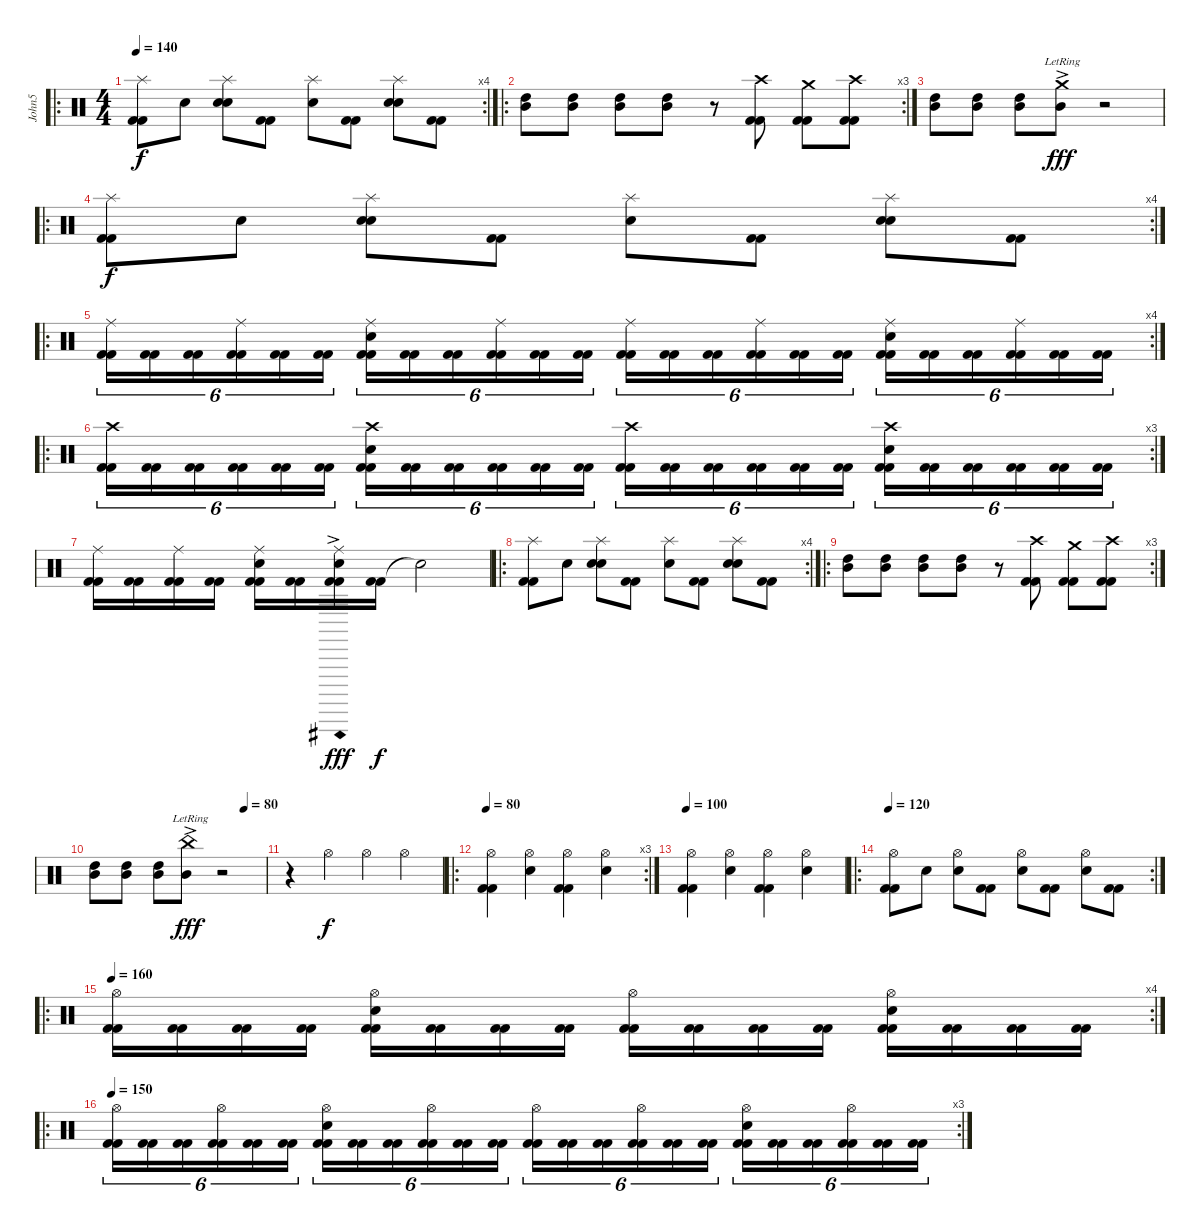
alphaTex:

\track ("John5" "John5") {instrument percussion}
\staff {score}
\articulation defaults
\ro
\rc 4
\ts (4 4)
\tempo 140
\clef neutral
\ks c
("Splash (hit)" "Kick (hit) 2" "Kick (hit) 2").8{dy f} "Snare (hit)".8 ("Splash (hit)" "Electric Snare (hit)" "Snare (hit)").8 ("Kick (hit) 2" "Kick (hit) 2").8 ("Splash (hit)" "Snare (hit)").8 ("Kick (hit) 2" "Kick (hit) 2").8 ("Splash (hit)" "Electric Snare (hit)" "Snare (hit)").8 ("Kick (hit) 2" "Kick (hit) 2").8 |
\ro
\rc 3
("High Tom (hit)" "Mid Tom (hit)").8 ("High Tom (hit)" "Mid Tom (hit)").8 ("High Tom (hit)" "Mid Tom (hit)").8 ("High Tom (hit)" "Mid Tom (hit)").8 r.8 ("Crash high (hit)" "Kick (hit) 2" "Kick (hit) 2").8 ("Crash medium (hit)" "Kick (hit) 2" "Kick (hit) 2").8 ("Crash high (hit)" "Kick (hit) 2" "Kick (hit) 2").8 |
("High Tom (hit)" "Mid Tom (hit)").8 ("High Tom (hit)" "Mid Tom (hit)").8 ("High Tom (hit)" "Mid Tom (hit)").8 ("Crash medium (hit)"{ac lr} "Mid Tom (hit)").8{dy fff} r.2 |
\ro
\rc 4
("Splash (hit)" "Kick (hit) 2" "Kick (hit) 2").8{dy f} "Snare (hit)".8 ("Splash (hit)" "Electric Snare (hit)" "Snare (hit)").8 ("Kick (hit) 2" "Kick (hit) 2").8 ("Splash (hit)" "Snare (hit)").8 ("Kick (hit) 2" "Kick (hit) 2").8 ("Splash (hit)" "Electric Snare (hit)" "Snare (hit)").8 ("Kick (hit) 2" "Kick (hit) 2").8 |
\ro
\rc 4
("Ride (middle)" "Kick (hit) 2" "Kick (hit) 2").16{tu (6 4)} ("Kick (hit) 2" "Kick (hit) 2").16{tu (6 4)} ("Kick (hit) 2" "Kick (hit) 2").16{tu (6 4)} ("Ride (middle)" "Kick (hit) 2" "Kick (hit) 2").16{tu (6 4)} ("Kick (hit) 2" "Kick (hit) 2").16{tu (6 4)} ("Kick (hit) 2" "Kick (hit) 2").16{tu (6 4)} ("Ride (middle)" "Electric Snare (hit)" "Kick (hit) 2" "Kick (hit) 2").16{tu (6 4)} ("Kick (hit) 2" "Kick (hit) 2").16{tu (6 4)} ("Kick (hit) 2" "Kick (hit) 2").16{tu (6 4)} ("Ride (middle)" "Kick (hit) 2" "Kick (hit) 2").16{tu (6 4)} ("Kick (hit) 2" "Kick (hit) 2").16{tu (6 4)} ("Kick (hit) 2" "Kick (hit) 2").16{tu (6 4)} ("Ride (middle)" "Kick (hit) 2" "Kick (hit) 2").16{tu (6 4)} ("Kick (hit) 2" "Kick (hit) 2").16{tu (6 4)} ("Kick (hit) 2" "Kick (hit) 2").16{tu (6 4)} ("Ride (middle)" "Kick (hit) 2" "Kick (hit) 2").16{tu (6 4)} ("Kick (hit) 2" "Kick (hit) 2").16{tu (6 4)} ("Kick (hit) 2" "Kick (hit) 2").16{tu (6 4)} ("Ride (middle)" "Electric Snare (hit)" "Kick (hit) 2" "Kick (hit) 2").16{tu (6 4)} ("Kick (hit) 2" "Kick (hit) 2").16{tu (6 4)} ("Kick (hit) 2" "Kick (hit) 2").16{tu (6 4)} ("Ride (middle)" "Kick (hit) 2" "Kick (hit) 2").16{tu (6 4)} ("Kick (hit) 2" "Kick (hit) 2").16{tu (6 4)} ("Kick (hit) 2" "Kick (hit) 2").16{tu (6 4)} |
\ro
\rc 3
("Crash high (hit)" "Kick (hit) 2" "Kick (hit) 2").16{tu (6 4)} ("Kick (hit) 2" "Kick (hit) 2").16{tu (6 4)} ("Kick (hit) 2" "Kick (hit) 2").16{tu (6 4)} ("Kick (hit) 2" "Kick (hit) 2").16{tu (6 4)} ("Kick (hit) 2" "Kick (hit) 2").16{tu (6 4)} ("Kick (hit) 2" "Kick (hit) 2").16{tu (6 4)} ("Crash high (hit)" "Electric Snare (hit)" "Kick (hit) 2" "Kick (hit) 2").16{tu (6 4)} ("Kick (hit) 2" "Kick (hit) 2").16{tu (6 4)} ("Kick (hit) 2" "Kick (hit) 2").16{tu (6 4)} ("Kick (hit) 2" "Kick (hit) 2").16{tu (6 4)} ("Kick (hit) 2" "Kick (hit) 2").16{tu (6 4)} ("Kick (hit) 2" "Kick (hit) 2").16{tu (6 4)} ("Crash high (hit)" "Kick (hit) 2" "Kick (hit) 2").16{tu (6 4)} ("Kick (hit) 2" "Kick (hit) 2").16{tu (6 4)} ("Kick (hit) 2" "Kick (hit) 2").16{tu (6 4)} ("Kick (hit) 2" "Kick (hit) 2").16{tu (6 4)} ("Kick (hit) 2" "Kick (hit) 2").16{tu (6 4)} ("Kick (hit) 2" "Kick (hit) 2").16{tu (6 4)} ("Crash high (hit)" "Electric Snare (hit)" "Kick (hit) 2" "Kick (hit) 2").16{tu (6 4)} ("Kick (hit) 2" "Kick (hit) 2").16{tu (6 4)} ("Kick (hit) 2" "Kick (hit) 2").16{tu (6 4)} ("Kick (hit) 2" "Kick (hit) 2").16{tu (6 4)} ("Kick (hit) 2" "Kick (hit) 2").16{tu (6 4)} ("Kick (hit) 2" "Kick (hit) 2").16{tu (6 4)} |
("Ride (middle)" "Kick (hit) 2" "Kick (hit) 2").16 ("Kick (hit) 2" "Kick (hit) 2").16 ("Ride (middle)" "Kick (hit) 2" "Kick (hit) 2").16 ("Kick (hit) 2" "Kick (hit) 2").16 ("Ride (middle)" "Electric Snare (hit)" "Kick (hit) 2" "Kick (hit) 2").16 ("Kick (hit) 2" "Kick (hit) 2").16 ("Ride (middle)"{ph 12} "Electric Snare (hit)"{ac} "Kick (hit) 2" "Kick (hit) 2").16{dy fff} ("Kick (hit) 2" "Kick (hit) 2").16{dy f} "Snare (hit)"{t}.2 |
\ro
\rc 4
("Splash (hit)" "Kick (hit) 2" "Kick (hit) 2").8 "Snare (hit)".8 ("Splash (hit)" "Electric Snare (hit)" "Snare (hit)").8 ("Kick (hit) 2" "Kick (hit) 2").8 ("Splash (hit)" "Snare (hit)").8 ("Kick (hit) 2" "Kick (hit) 2").8 ("Splash (hit)" "Electric Snare (hit)" "Snare (hit)").8 ("Kick (hit) 2" "Kick (hit) 2").8 |
\ro
\rc 3
("High Tom (hit)" "Mid Tom (hit)").8 ("High Tom (hit)" "Mid Tom (hit)").8 ("High Tom (hit)" "Mid Tom (hit)").8 ("High Tom (hit)" "Mid Tom (hit)").8 r.8 ("Crash high (hit)" "Kick (hit) 2" "Kick (hit) 2").8 ("Crash medium (hit)" "Kick (hit) 2" "Kick (hit) 2").8 ("Crash high (hit)" "Kick (hit) 2" "Kick (hit) 2").8 |
\tempo (80 0.875)
("High Tom (hit)" "Mid Tom (hit)").8 ("High Tom (hit)" "Mid Tom (hit)").8 ("High Tom (hit)" "Mid Tom (hit)").8 ("China (hit)"{ac lr} "Mid Tom (hit)"{ac}).8{dy fff} r.2 |
r.4 "Hi-Hat (open)".4{dy f} "Hi-Hat (open)".4 "Hi-Hat (open)".4 |
\ro
\rc 3
\tempo 80
("Hi-Hat (open)" "Kick (hit) 2" "Kick (hit) 2").4 ("Hi-Hat (open)" "Electric Snare (hit)").4 ("Hi-Hat (open)" "Kick (hit) 2" "Kick (hit) 2").4 ("Hi-Hat (open)" "Electric Snare (hit)").4 |
\tempo 100
("Hi-Hat (open)" "Kick (hit) 2" "Kick (hit) 2").4 ("Hi-Hat (open)" "Electric Snare (hit)").4 ("Hi-Hat (open)" "Kick (hit) 2" "Kick (hit) 2").4 ("Hi-Hat (open)" "Electric Snare (hit)").4 |
\ro
\rc 2
\tempo 120
("Hi-Hat (open)" "Kick (hit) 2" "Kick (hit) 2").8 "Snare (hit)".8 ("Hi-Hat (open)" "Electric Snare (hit)").8 ("Kick (hit) 2" "Kick (hit) 2").8 ("Hi-Hat (open)" "Snare (hit)").8 ("Kick (hit) 2" "Kick (hit) 2").8 ("Hi-Hat (open)" "Electric Snare (hit)").8 ("Kick (hit) 2" "Kick (hit) 2").8 |
\ro
\rc 4
\tempo 160
("Hi-Hat (open)" "Kick (hit) 2" "Kick (hit) 2").16 ("Kick (hit) 2" "Kick (hit) 2").16 ("Kick (hit) 2" "Kick (hit) 2").16 ("Kick (hit) 2" "Kick (hit) 2").16 ("Hi-Hat (open)" "Electric Snare (hit)" "Kick (hit) 2" "Kick (hit) 2").16 ("Kick (hit) 2" "Kick (hit) 2").16 ("Kick (hit) 2" "Kick (hit) 2").16 ("Kick (hit) 2" "Kick (hit) 2").16 ("Hi-Hat (open)" "Kick (hit) 2" "Kick (hit) 2").16 ("Kick (hit) 2" "Kick (hit) 2").16 ("Kick (hit) 2" "Kick (hit) 2").16 ("Kick (hit) 2" "Kick (hit) 2").16 ("Hi-Hat (open)" "Electric Snare (hit)" "Kick (hit) 2" "Kick (hit) 2").16 ("Kick (hit) 2" "Kick (hit) 2").16 ("Kick (hit) 2" "Kick (hit) 2").16 ("Kick (hit) 2" "Kick (hit) 2").16 |
\ro
\rc 3
\tempo 150
("Hi-Hat (open)" "Kick (hit) 2" "Kick (hit) 2").16{tu (6 4)} ("Kick (hit) 2" "Kick (hit) 2").16{tu (6 4)} ("Kick (hit) 2" "Kick (hit) 2").16{tu (6 4)} ("Hi-Hat (open)" "Kick (hit) 2" "Kick (hit) 2").16{tu (6 4)} ("Kick (hit) 2" "Kick (hit) 2").16{tu (6 4)} ("Kick (hit) 2" "Kick (hit) 2").16{tu (6 4)} ("Hi-Hat (open)" "Electric Snare (hit)" "Kick (hit) 2" "Kick (hit) 2").16{tu (6 4)} ("Kick (hit) 2" "Kick (hit) 2").16{tu (6 4)} ("Kick (hit) 2" "Kick (hit) 2").16{tu (6 4)} ("Hi-Hat (open)" "Kick (hit) 2" "Kick (hit) 2").16{tu (6 4)} ("Kick (hit) 2" "Kick (hit) 2").16{tu (6 4)} ("Kick (hit) 2" "Kick (hit) 2").16{tu (6 4)} ("Hi-Hat (open)" "Kick (hit) 2" "Kick (hit) 2").16{tu (6 4)} ("Kick (hit) 2" "Kick (hit) 2").16{tu (6 4)} ("Kick (hit) 2" "Kick (hit) 2").16{tu (6 4)} ("Hi-Hat (open)" "Kick (hit) 2" "Kick (hit) 2").16{tu (6 4)} ("Kick (hit) 2" "Kick (hit) 2").16{tu (6 4)} ("Kick (hit) 2" "Kick (hit) 2").16{tu (6 4)} ("Hi-Hat (open)" "Electric Snare (hit)" "Kick (hit) 2" "Kick (hit) 2").16{tu (6 4)} ("Kick (hit) 2" "Kick (hit) 2").16{tu (6 4)} ("Kick (hit) 2" "Kick (hit) 2").16{tu (6 4)} ("Hi-Hat (open)" "Kick (hit) 2" "Kick (hit) 2").16{tu (6 4)} ("Kick (hit) 2" "Kick (hit) 2").16{tu (6 4)} ("Kick (hit) 2" "Kick (hit) 2").16{tu (6 4)}
